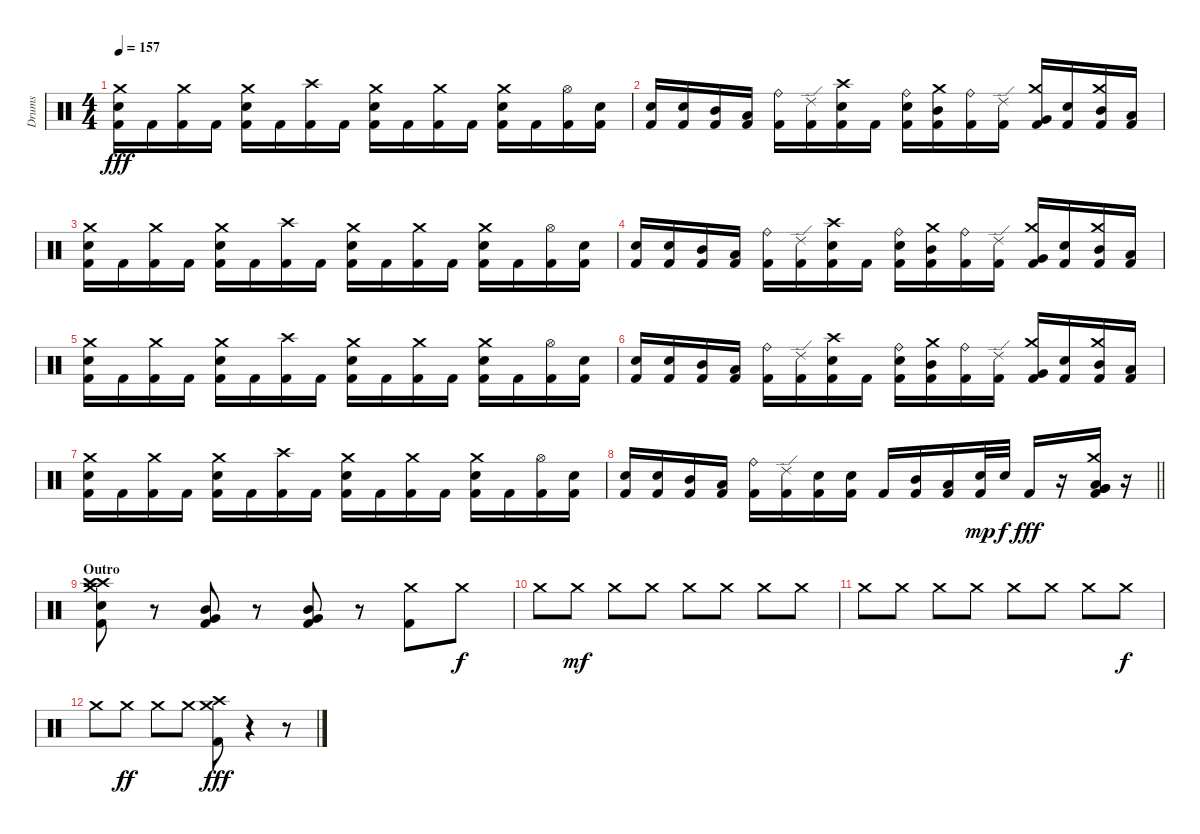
\track ("Drums" "Drums") {instrument percussion}
\staff {score}
\articulation defaults
\ts (4 4)
\tempo 157
\clef neutral
\ks c
("Kick (hit) 2" "Snare (hit) 2" "Crash medium (hit)").16{dy fff} "Kick (hit) 2".16 ("Kick (hit) 2" "Crash medium (hit)").16 "Kick (hit) 2".16 ("Kick (hit) 2" "Snare (hit) 2" "Crash medium (hit)").16 "Kick (hit) 2".16 ("Kick (hit) 2" "Crash high (hit)").16 "Kick (hit) 2".16 ("Kick (hit) 2" "Snare (hit) 2" "Crash medium (hit)").16 "Kick (hit) 2".16 ("Kick (hit) 2" "Crash medium (hit)").16 "Kick (hit) 2".16 ("Kick (hit) 2" "Snare (hit) 2" "Crash medium (hit)").16 "Kick (hit) 2".16 ("Kick (hit) 2" "Hi-Hat (open)").16 ("Kick (hit) 2" "Snare (hit) 2").16 |
("Kick (hit) 2" "Snare (hit) 2").16 ("Kick (hit) 2" "Snare (hit) 2").16 ("Kick (hit) 2" "Mid Tom (hit)").16 ("Kick (hit) 2" "Low Tom (hit)").16 ("Kick (hit) 2" "Ride (bell)").16 ("Kick (hit) 2" "Ride (edge) 2").16 ("Kick (hit) 2" "Snare (hit) 2" "Crash high (hit)").16 "Kick (hit) 2".16 ("Kick (hit) 2" "Snare (hit) 2" "Ride (bell)").16 ("Kick (hit) 2" "Mid Tom (hit)" "Crash medium (hit)").16 ("Kick (hit) 2" "Ride (bell)").16 ("Kick (hit) 2" "Ride (edge) 2").16 ("Kick (hit) 2" "Very Low Tom (hit)" "Crash medium (hit)").16 ("Kick (hit) 2" "Snare (hit) 2").16 ("Kick (hit) 2" "Mid Tom (hit)" "Crash medium (hit)").16 ("Kick (hit) 2" "Low Tom (hit)").16 |
("Kick (hit) 2" "Snare (hit) 2" "Crash medium (hit)").16 "Kick (hit) 2".16 ("Kick (hit) 2" "Crash medium (hit)").16 "Kick (hit) 2".16 ("Kick (hit) 2" "Snare (hit) 2" "Crash medium (hit)").16 "Kick (hit) 2".16 ("Kick (hit) 2" "Crash high (hit)").16 "Kick (hit) 2".16 ("Kick (hit) 2" "Snare (hit) 2" "Crash medium (hit)").16 "Kick (hit) 2".16 ("Kick (hit) 2" "Crash medium (hit)").16 "Kick (hit) 2".16 ("Kick (hit) 2" "Snare (hit) 2" "Crash medium (hit)").16 "Kick (hit) 2".16 ("Kick (hit) 2" "Hi-Hat (open)").16 ("Kick (hit) 2" "Snare (hit) 2").16 |
("Kick (hit) 2" "Snare (hit) 2").16 ("Kick (hit) 2" "Snare (hit) 2").16 ("Kick (hit) 2" "Mid Tom (hit)").16 ("Kick (hit) 2" "Low Tom (hit)").16 ("Kick (hit) 2" "Ride (bell)").16 ("Kick (hit) 2" "Ride (edge) 2").16 ("Kick (hit) 2" "Snare (hit) 2" "Crash high (hit)").16 "Kick (hit) 2".16 ("Kick (hit) 2" "Snare (hit) 2" "Ride (bell)").16 ("Kick (hit) 2" "Mid Tom (hit)" "Crash medium (hit)").16 ("Kick (hit) 2" "Ride (bell)").16 ("Kick (hit) 2" "Ride (edge) 2").16 ("Kick (hit) 2" "Very Low Tom (hit)" "Crash medium (hit)").16 ("Kick (hit) 2" "Snare (hit) 2").16 ("Kick (hit) 2" "Mid Tom (hit)" "Crash medium (hit)").16 ("Kick (hit) 2" "Low Tom (hit)").16 |
("Kick (hit) 2" "Snare (hit) 2" "Crash medium (hit)").16 "Kick (hit) 2".16 ("Kick (hit) 2" "Crash medium (hit)").16 "Kick (hit) 2".16 ("Kick (hit) 2" "Snare (hit) 2" "Crash medium (hit)").16 "Kick (hit) 2".16 ("Kick (hit) 2" "Crash high (hit)").16 "Kick (hit) 2".16 ("Kick (hit) 2" "Snare (hit) 2" "Crash medium (hit)").16 "Kick (hit) 2".16 ("Kick (hit) 2" "Crash medium (hit)").16 "Kick (hit) 2".16 ("Kick (hit) 2" "Snare (hit) 2" "Crash medium (hit)").16 "Kick (hit) 2".16 ("Kick (hit) 2" "Hi-Hat (open)").16 ("Kick (hit) 2" "Snare (hit) 2").16 |
("Kick (hit) 2" "Snare (hit) 2").16 ("Kick (hit) 2" "Snare (hit) 2").16 ("Kick (hit) 2" "Mid Tom (hit)").16 ("Kick (hit) 2" "Low Tom (hit)").16 ("Kick (hit) 2" "Ride (bell)").16 ("Kick (hit) 2" "Ride (edge) 2").16 ("Kick (hit) 2" "Snare (hit) 2" "Crash high (hit)").16 "Kick (hit) 2".16 ("Kick (hit) 2" "Snare (hit) 2" "Ride (bell)").16 ("Kick (hit) 2" "Mid Tom (hit)" "Crash medium (hit)").16 ("Kick (hit) 2" "Ride (bell)").16 ("Kick (hit) 2" "Ride (edge) 2").16 ("Kick (hit) 2" "Very Low Tom (hit)" "Crash medium (hit)").16 ("Kick (hit) 2" "Snare (hit) 2").16 ("Kick (hit) 2" "Mid Tom (hit)" "Crash medium (hit)").16 ("Kick (hit) 2" "Low Tom (hit)").16 |
("Kick (hit) 2" "Snare (hit) 2" "Crash medium (hit)").16 "Kick (hit) 2".16 ("Kick (hit) 2" "Crash medium (hit)").16 "Kick (hit) 2".16 ("Kick (hit) 2" "Snare (hit) 2" "Crash medium (hit)").16 "Kick (hit) 2".16 ("Kick (hit) 2" "Crash high (hit)").16 "Kick (hit) 2".16 ("Kick (hit) 2" "Snare (hit) 2" "Crash medium (hit)").16 "Kick (hit) 2".16 ("Kick (hit) 2" "Crash medium (hit)").16 "Kick (hit) 2".16 ("Kick (hit) 2" "Snare (hit) 2" "Crash medium (hit)").16 "Kick (hit) 2".16 ("Kick (hit) 2" "Hi-Hat (open)").16 ("Kick (hit) 2" "Snare (hit) 2").16 |
\barLineRight lightlight
("Kick (hit) 2" "Snare (hit) 2").16 ("Kick (hit) 2" "Snare (hit) 2").16 ("Kick (hit) 2" "Mid Tom (hit)").16 ("Kick (hit) 2" "Low Tom (hit)").16 ("Kick (hit) 2" "Ride (bell)").16 ("Kick (hit) 2" "Ride (edge) 2").16 ("Kick (hit) 2" "Snare (hit) 2").16 ("Kick (hit) 2" "Snare (hit) 2").16 "Kick (hit) 2".16 ("Kick (hit) 2" "Mid Tom (hit)").16 ("Kick (hit) 2" "Low Tom (hit)").16 ("Kick (hit) 2" "Snare (hit) 2").32{dy mp} "Snare (hit) 2".32{dy f} "Kick (hit) 2".16{dy fff} r.16 ("Kick (hit) 2" "Very Low Tom (hit)" "Very Low Tom (hit)" "Low Tom (hit)" "Crash medium (hit)").16 r.16 |
\section ("" "Outro")
("Kick (hit) 2" "Snare (hit) 2" "Crash high (hit)" "Crash high (hit)" "Crash medium (hit)").8 r.8 ("Kick (hit) 2" "Very Low Tom (hit)" "Mid Tom (hit)").8 r.8 ("Kick (hit) 2" "Very Low Tom (hit)" "Mid Tom (hit)").8 r.8 ("Kick (hit) 2" "Crash medium (hit)").8 "Crash medium (hit)".8{dy f} |
"Crash medium (hit)".8 "Crash medium (hit)".8{dy mf} "Crash medium (hit)".8 "Crash medium (hit)".8 "Crash medium (hit)".8 "Crash medium (hit)".8 "Crash medium (hit)".8 "Crash medium (hit)".8 |
"Crash medium (hit)".8 "Crash medium (hit)".8 "Crash medium (hit)".8 "Crash medium (hit)".8 "Crash medium (hit)".8 "Crash medium (hit)".8 "Crash medium (hit)".8 "Crash medium (hit)".8{dy f} |
"Crash medium (hit)".8 "Crash medium (hit)".8{dy ff} "Crash medium (hit)".8 "Crash medium (hit)".8 ("Kick (hit) 2" "Crash high (hit)" "Crash medium (hit)").8{dy fff} r.4 r.8
